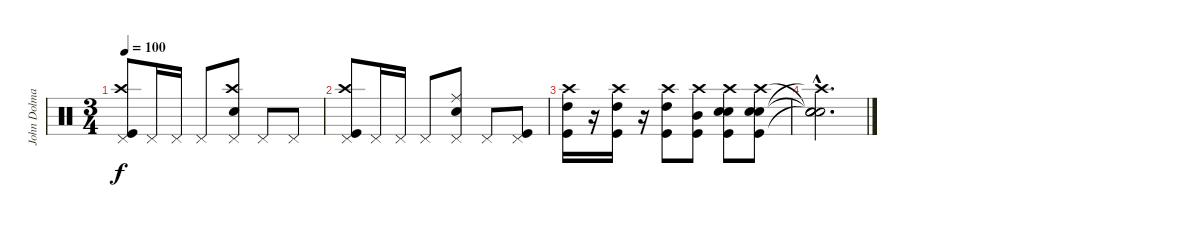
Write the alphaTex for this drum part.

\track ("John Dolmayan" "John Dolma") {instrument percussion}
\staff {score}
\articulation defaults
\ts (3 4)
\tempo 100
\clef neutral
\ks c
("Pedal Hi-Hat (hit)" "Crash high (hit)" "Kick (hit)").8{dy f} "Pedal Hi-Hat (hit)".16 "Pedal Hi-Hat (hit)".16 "Pedal Hi-Hat (hit)".8 ("Pedal Hi-Hat (hit)" "Electric Snare (hit)" "Crash high (hit)").8 "Pedal Hi-Hat (hit)".8 "Pedal Hi-Hat (hit)".8 |
("Pedal Hi-Hat (hit)" "Crash high (hit)" "Kick (hit)").8 "Pedal Hi-Hat (hit)".16 "Pedal Hi-Hat (hit)".16 "Pedal Hi-Hat (hit)".8 ("Pedal Hi-Hat (hit)" "Electric Snare (hit)" "Ride (middle)").8 "Pedal Hi-Hat (hit)".8 ("Pedal Hi-Hat (hit)" "Kick (hit)").8 |
("High Tom (hit)" "Crash high (hit)" "Kick (hit)").16 r.16 ("High Tom (hit)" "Crash high (hit)" "Kick (hit)").16 r.16 ("High Tom (hit)" "Crash high (hit)" "Kick (hit)").8 ("Mid Tom (hit)" "Crash high (hit)" "Kick (hit)").8 ("Electric Snare (hit)" "Electric Snare (hit)" "Crash high (hit)" "Kick (hit)").8 ("Electric Snare (hit)" "Electric Snare (hit)" "Crash high (hit)" "Kick (hit)").8 |
("Crash high (hit)"{hac t} "Electric Snare (hit)"{hac t} "Snare (hit)"{hac t} "Snare (hit)"{hac t}).2{d}
